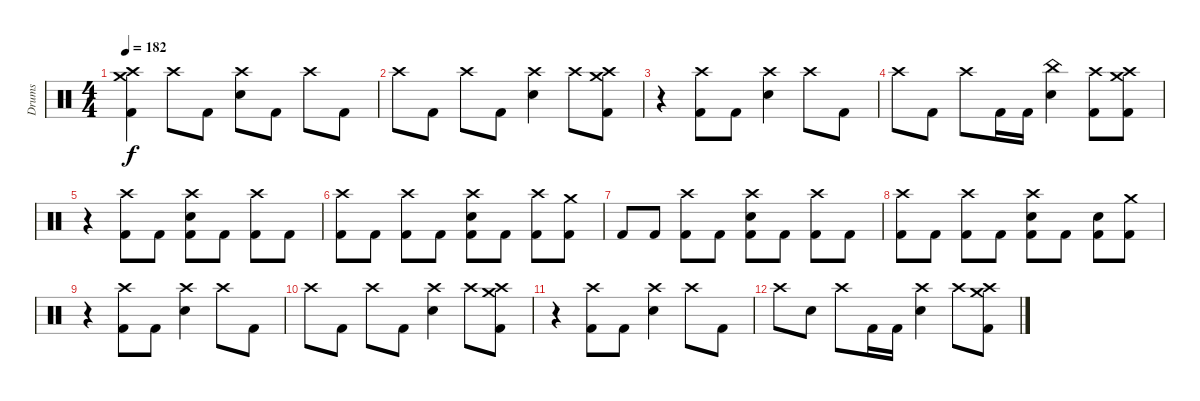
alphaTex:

\track ("Drums" "Drums") {instrument percussion}
\staff {score}
\articulation defaults
\ts (4 4)
\tempo 182
\clef neutral
\ks c
("Crash medium (hit)" "Crash high (hit)" "Kick (hit) 2").4{dy f} "Crash high (hit)".8 "Kick (hit) 2".8 ("Crash high (hit)" "Snare (hit) 2").8 "Kick (hit) 2".8 "Crash high (hit)".8 "Kick (hit) 2".8 |
"Crash high (hit)".8 "Kick (hit) 2".8 "Crash high (hit)".8 "Kick (hit) 2".8 ("Crash high (hit)" "Snare (hit) 2").4 "Crash high (hit)".8 ("Crash medium (hit)" "Crash high (hit)" "Kick (hit) 2").8 |
r.4 ("Crash high (hit)" "Kick (hit) 2").8 "Kick (hit) 2".8 ("Crash high (hit)" "Snare (hit) 2").4 "Crash high (hit)".8 "Kick (hit) 2".8 |
"Crash high (hit)".8 "Kick (hit) 2".8 "Crash high (hit)".8 "Kick (hit) 2".16 "Kick (hit) 2".16 ("China (hit)" "Snare (hit) 2").4 ("Crash high (hit)" "Kick (hit) 2").8 ("Crash medium (hit)" "Crash high (hit)" "Kick (hit) 2").8 |
r.4 ("Crash high (hit)" "Kick (hit) 2").8 "Kick (hit) 2".8 ("Crash high (hit)" "Snare (hit) 2" "Kick (hit) 2").8 "Kick (hit) 2".8 ("Crash high (hit)" "Kick (hit) 2").8 "Kick (hit) 2".8 |
("Crash high (hit)" "Kick (hit) 2").8 "Kick (hit) 2".8 ("Crash high (hit)" "Kick (hit) 2").8 "Kick (hit) 2".8 ("Crash high (hit)" "Snare (hit) 2" "Kick (hit) 2").8 "Kick (hit) 2".8 ("Crash high (hit)" "Kick (hit) 2").8 ("Crash medium (hit)" "Kick (hit) 2").8 |
"Kick (hit) 2".8 "Kick (hit) 2".8 ("Crash high (hit)" "Kick (hit) 2").8 "Kick (hit) 2".8 ("Crash high (hit)" "Snare (hit) 2" "Kick (hit) 2").8 "Kick (hit) 2".8 ("Crash high (hit)" "Kick (hit) 2").8 "Kick (hit) 2".8 |
("Crash high (hit)" "Kick (hit) 2").8 "Kick (hit) 2".8 ("Crash high (hit)" "Kick (hit) 2").8 "Kick (hit) 2".8 ("Crash high (hit)" "Snare (hit) 2" "Kick (hit) 2").8 "Kick (hit) 2".8 ("Snare (hit) 2" "Kick (hit) 2").8 ("Crash medium (hit)" "Kick (hit) 2").8 |
r.4 ("Crash high (hit)" "Kick (hit) 2").8 "Kick (hit) 2".8 ("Crash high (hit)" "Snare (hit) 2").4 "Crash high (hit)".8 "Kick (hit) 2".8 |
"Crash high (hit)".8 "Kick (hit) 2".8 "Crash high (hit)".8 "Kick (hit) 2".8 ("Crash high (hit)" "Snare (hit) 2").4 "Crash high (hit)".8 ("Crash medium (hit)" "Crash high (hit)" "Kick (hit) 2").8 |
r.4 ("Crash high (hit)" "Kick (hit) 2").8 "Kick (hit) 2".8 ("Crash high (hit)" "Snare (hit) 2").4 "Crash high (hit)".8 "Kick (hit) 2".8 |
"Crash high (hit)".8 "Snare (hit) 2".8 "Crash high (hit)".8 "Kick (hit) 2".16 "Kick (hit) 2".16 ("Crash high (hit)" "Snare (hit) 2").4 "Crash high (hit)".8 ("Crash medium (hit)" "Crash high (hit)" "Kick (hit) 2").8
